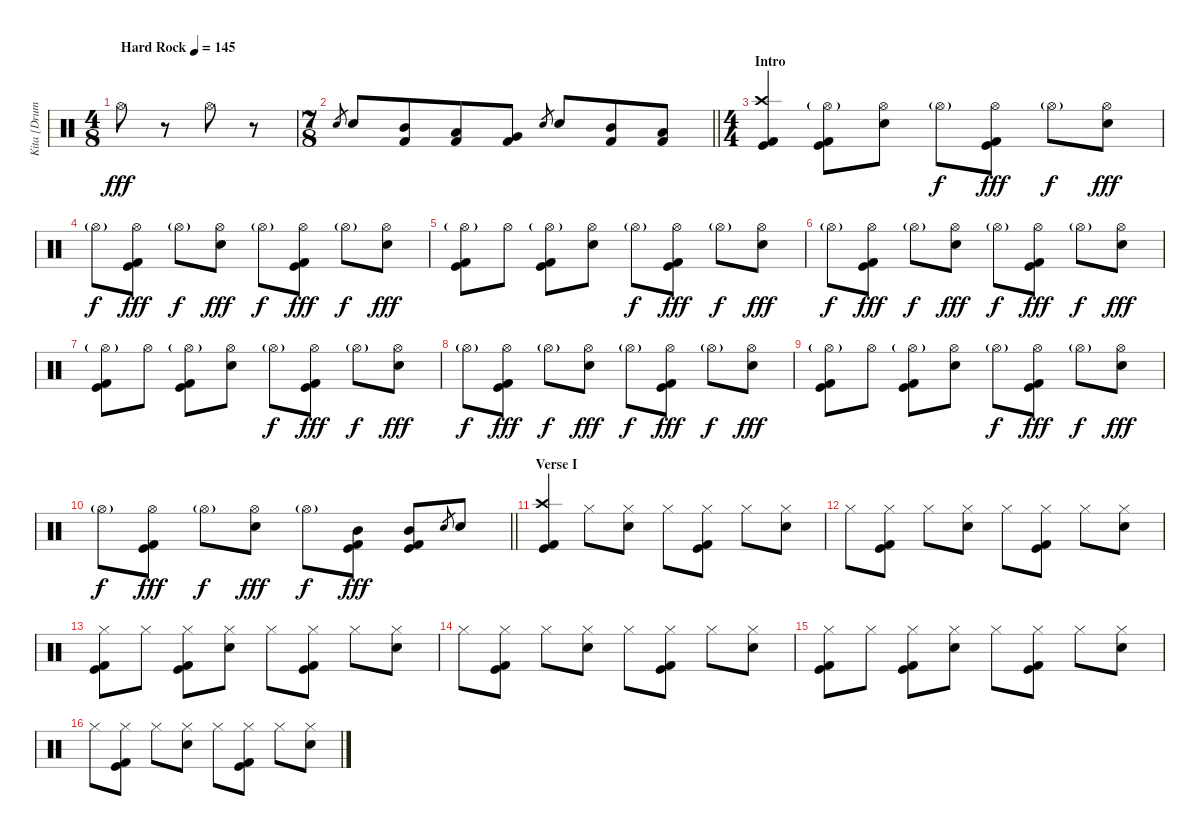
\track ("Kita [Drums]" "Kita [Drum") {instrument percussion}
\staff {score}
\articulation defaults
\ts (4 8)
\tempo (145 "Hard Rock")
\clef neutral
\ks c "Hi-Hat (open)".8{dy fff}
r.8 "Hi-Hat (open)".8 r.8 |
\ts (7 8)
\barLineRight lightlight "Electric Snare (hit)".8{gr} "Electric Snare (hit)".8
("Mid Tom (hit)" "Kick (hit) 2").8 ("Low Tom (hit)" "Kick (hit) 2").8 ("Very Low Tom (hit)" "Kick (hit) 2").8 "Electric Snare (hit)".8{gr} "Electric Snare (hit)".8 ("Mid Tom (hit)" "Kick (hit) 2").8 ("Low Tom (hit)" "Kick (hit) 2").8 |
\ts (4 4)
\section ("" "Intro")
("Crash high (hit)" "Kick (hit)" "Kick (hit) 2").4 ("Hi-Hat (open)"{g} "Kick (hit)" "Kick (hit) 2").8 ("Hi-Hat (open)" "Electric Snare (hit)").8 "Hi-Hat (open)"{g}.8{dy f} ("Hi-Hat (open)" "Kick (hit)" "Kick (hit) 2").8{dy fff} "Hi-Hat (open)"{g}.8{dy f} ("Hi-Hat (open)" "Electric Snare (hit)").8{dy fff} |
"Hi-Hat (open)"{g}.8{dy f} ("Hi-Hat (open)" "Kick (hit)" "Kick (hit) 2").8{dy fff} "Hi-Hat (open)"{g}.8{dy f} ("Hi-Hat (open)" "Electric Snare (hit)").8{dy fff} "Hi-Hat (open)"{g}.8{dy f} ("Hi-Hat (open)" "Kick (hit)" "Kick (hit) 2").8{dy fff} "Hi-Hat (open)"{g}.8{dy f} ("Hi-Hat (open)" "Electric Snare (hit)").8{dy fff} |
("Hi-Hat (open)"{g} "Kick (hit)" "Kick (hit) 2").8 "Hi-Hat (open)".8 ("Hi-Hat (open)"{g} "Kick (hit)" "Kick (hit) 2").8 ("Hi-Hat (open)" "Electric Snare (hit)").8 "Hi-Hat (open)"{g}.8{dy f} ("Hi-Hat (open)" "Kick (hit)" "Kick (hit) 2").8{dy fff} "Hi-Hat (open)"{g}.8{dy f} ("Hi-Hat (open)" "Electric Snare (hit)").8{dy fff} |
"Hi-Hat (open)"{g}.8{dy f} ("Hi-Hat (open)" "Kick (hit)" "Kick (hit) 2").8{dy fff} "Hi-Hat (open)"{g}.8{dy f} ("Hi-Hat (open)" "Electric Snare (hit)").8{dy fff} "Hi-Hat (open)"{g}.8{dy f} ("Hi-Hat (open)" "Kick (hit)" "Kick (hit) 2").8{dy fff} "Hi-Hat (open)"{g}.8{dy f} ("Hi-Hat (open)" "Electric Snare (hit)").8{dy fff} |
("Hi-Hat (open)"{g} "Kick (hit)" "Kick (hit) 2").8 "Hi-Hat (open)".8 ("Hi-Hat (open)"{g} "Kick (hit)" "Kick (hit) 2").8 ("Hi-Hat (open)" "Electric Snare (hit)").8 "Hi-Hat (open)"{g}.8{dy f} ("Hi-Hat (open)" "Kick (hit)" "Kick (hit) 2").8{dy fff} "Hi-Hat (open)"{g}.8{dy f} ("Hi-Hat (open)" "Electric Snare (hit)").8{dy fff} |
"Hi-Hat (open)"{g}.8{dy f} ("Hi-Hat (open)" "Kick (hit)" "Kick (hit) 2").8{dy fff} "Hi-Hat (open)"{g}.8{dy f} ("Hi-Hat (open)" "Electric Snare (hit)").8{dy fff} "Hi-Hat (open)"{g}.8{dy f} ("Hi-Hat (open)" "Kick (hit)" "Kick (hit) 2").8{dy fff} "Hi-Hat (open)"{g}.8{dy f} ("Hi-Hat (open)" "Electric Snare (hit)").8{dy fff} |
("Hi-Hat (open)"{g} "Kick (hit)" "Kick (hit) 2").8 "Hi-Hat (open)".8 ("Hi-Hat (open)"{g} "Kick (hit)" "Kick (hit) 2").8 ("Hi-Hat (open)" "Electric Snare (hit)").8 "Hi-Hat (open)"{g}.8{dy f} ("Hi-Hat (open)" "Kick (hit)" "Kick (hit) 2").8{dy fff} "Hi-Hat (open)"{g}.8{dy f} ("Hi-Hat (open)" "Electric Snare (hit)").8{dy fff} |
\barLineRight lightlight "Hi-Hat (open)"{g}.8{dy f}
("Hi-Hat (open)" "Kick (hit)" "Kick (hit) 2").8{dy fff} "Hi-Hat (open)"{g}.8{dy f} ("Hi-Hat (open)" "Electric Snare (hit)").8{dy fff} "Hi-Hat (open)"{g}.8{dy f} ("Mid Tom (hit)" "Kick (hit)" "Kick (hit) 2").8{dy fff} ("Mid Tom (hit)" "Kick (hit)" "Kick (hit) 2").8 "Electric Snare (hit)".8{gr} "Electric Snare (hit)".8 |
\section ("" "Verse I")
("Crash high (hit)" "Kick (hit)" "Kick (hit) 2").4 "Hi-Hat (closed)".8 ("Hi-Hat (closed)" "Electric Snare (hit)").8 "Hi-Hat (closed)".8 ("Hi-Hat (closed)" "Kick (hit)" "Kick (hit) 2").8 "Hi-Hat (closed)".8 ("Hi-Hat (closed)" "Electric Snare (hit)").8 |
"Hi-Hat (closed)".8 ("Hi-Hat (closed)" "Kick (hit)" "Kick (hit) 2").8 "Hi-Hat (closed)".8 ("Hi-Hat (closed)" "Electric Snare (hit)").8 "Hi-Hat (closed)".8 ("Hi-Hat (closed)" "Kick (hit)" "Kick (hit) 2").8 "Hi-Hat (closed)".8 ("Hi-Hat (closed)" "Electric Snare (hit)").8 |
("Hi-Hat (closed)" "Kick (hit)" "Kick (hit) 2").8 "Hi-Hat (closed)".8 ("Hi-Hat (closed)" "Kick (hit)" "Kick (hit) 2").8 ("Hi-Hat (closed)" "Electric Snare (hit)").8 "Hi-Hat (closed)".8 ("Hi-Hat (closed)" "Kick (hit)" "Kick (hit) 2").8 "Hi-Hat (closed)".8 ("Hi-Hat (closed)" "Electric Snare (hit)").8 |
"Hi-Hat (closed)".8 ("Hi-Hat (closed)" "Kick (hit)" "Kick (hit) 2").8 "Hi-Hat (closed)".8 ("Hi-Hat (closed)" "Electric Snare (hit)").8 "Hi-Hat (closed)".8 ("Hi-Hat (closed)" "Kick (hit)" "Kick (hit) 2").8 "Hi-Hat (closed)".8 ("Hi-Hat (closed)" "Electric Snare (hit)").8 |
("Hi-Hat (closed)" "Kick (hit)" "Kick (hit) 2").8 "Hi-Hat (closed)".8 ("Hi-Hat (closed)" "Kick (hit)" "Kick (hit) 2").8 ("Hi-Hat (closed)" "Electric Snare (hit)").8 "Hi-Hat (closed)".8 ("Hi-Hat (closed)" "Kick (hit)" "Kick (hit) 2").8 "Hi-Hat (closed)".8 ("Hi-Hat (closed)" "Electric Snare (hit)").8 |
"Hi-Hat (closed)".8 ("Hi-Hat (closed)" "Kick (hit)" "Kick (hit) 2").8 "Hi-Hat (closed)".8 ("Hi-Hat (closed)" "Electric Snare (hit)").8 "Hi-Hat (closed)".8 ("Hi-Hat (closed)" "Kick (hit)" "Kick (hit) 2").8 "Hi-Hat (closed)".8 ("Hi-Hat (closed)" "Electric Snare (hit)").8
